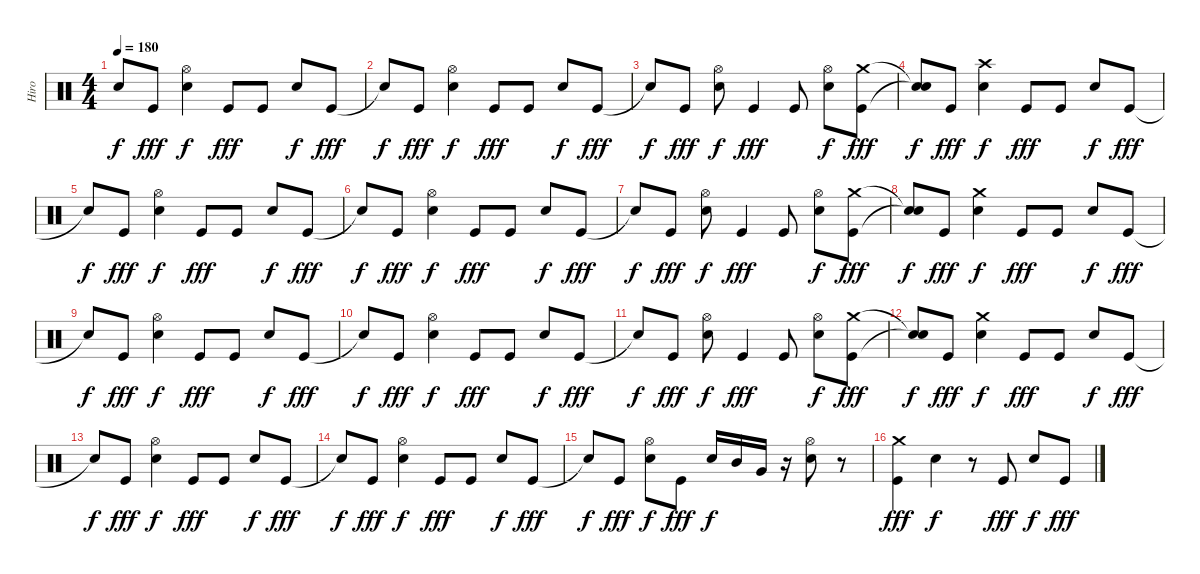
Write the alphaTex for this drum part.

\track ("Hiro" "Hiro") {instrument percussion}
\staff {score}
\articulation defaults
\ts (4 4)
\tempo 180
\clef neutral
\ks c "Snare (hit)"{t}.8{dy f} "Kick (hit)".8{dy fff}
("Electric Snare (hit)" "Hi-Hat (open)").4{dy f} "Kick (hit)".8{dy fff} "Kick (hit)".8 "Electric Snare (hit)".8{dy f} "Kick (hit)".8{dy fff} |
"Snare (hit)"{t}.8{dy f} "Kick (hit)".8{dy fff} ("Electric Snare (hit)" "Hi-Hat (open)").4{dy f} "Kick (hit)".8{dy fff} "Kick (hit)".8 "Electric Snare (hit)".8{dy f} "Kick (hit)".8{dy fff} |
"Snare (hit)"{t}.8{dy f} "Kick (hit)".8{dy fff} ("Electric Snare (hit)" "Hi-Hat (open)").8{dy f} "Kick (hit)".4{dy fff} "Kick (hit)".8 ("Electric Snare (hit)" "Hi-Hat (open)").8{dy f} ("Crash medium (hit)" "Kick (hit)").8{dy fff} |
("Snare (hit)"{t} "Snare (hit)"{t}).8{dy f} "Kick (hit)".8{dy fff} ("Electric Snare (hit)" "Crash high (hit)").4{dy f} "Kick (hit)".8{dy fff} "Kick (hit)".8 "Electric Snare (hit)".8{dy f} "Kick (hit)".8{dy fff} |
"Snare (hit)"{t}.8{dy f} "Kick (hit)".8{dy fff} ("Electric Snare (hit)" "Hi-Hat (open)").4{dy f} "Kick (hit)".8{dy fff} "Kick (hit)".8 "Electric Snare (hit)".8{dy f} "Kick (hit)".8{dy fff} |
"Snare (hit)"{t}.8{dy f} "Kick (hit)".8{dy fff} ("Electric Snare (hit)" "Hi-Hat (open)").4{dy f} "Kick (hit)".8{dy fff} "Kick (hit)".8 "Electric Snare (hit)".8{dy f} "Kick (hit)".8{dy fff} |
"Snare (hit)"{t}.8{dy f} "Kick (hit)".8{dy fff} ("Electric Snare (hit)" "Hi-Hat (open)").8{dy f} "Kick (hit)".4{dy fff} "Kick (hit)".8 ("Electric Snare (hit)" "Hi-Hat (open)").8{dy f} ("Crash medium (hit)" "Kick (hit)").8{dy fff} |
("Snare (hit)"{t} "Snare (hit)"{t}).8{dy f} "Kick (hit)".8{dy fff} ("Electric Snare (hit)" "Crash medium (hit)").4{dy f} "Kick (hit)".8{dy fff} "Kick (hit)".8 "Electric Snare (hit)".8{dy f} "Kick (hit)".8{dy fff} |
"Snare (hit)"{t}.8{dy f} "Kick (hit)".8{dy fff} ("Electric Snare (hit)" "Hi-Hat (open)").4{dy f} "Kick (hit)".8{dy fff} "Kick (hit)".8 "Electric Snare (hit)".8{dy f} "Kick (hit)".8{dy fff} |
"Snare (hit)"{t}.8{dy f} "Kick (hit)".8{dy fff} ("Electric Snare (hit)" "Hi-Hat (open)").4{dy f} "Kick (hit)".8{dy fff} "Kick (hit)".8 "Electric Snare (hit)".8{dy f} "Kick (hit)".8{dy fff} |
"Snare (hit)"{t}.8{dy f} "Kick (hit)".8{dy fff} ("Electric Snare (hit)" "Hi-Hat (open)").8{dy f} "Kick (hit)".4{dy fff} "Kick (hit)".8 ("Electric Snare (hit)" "Hi-Hat (open)").8{dy f} ("Crash medium (hit)" "Kick (hit)").8{dy fff} |
("Snare (hit)"{t} "Snare (hit)"{t}).8{dy f} "Kick (hit)".8{dy fff} ("Electric Snare (hit)" "Crash medium (hit)").4{dy f} "Kick (hit)".8{dy fff} "Kick (hit)".8 "Electric Snare (hit)".8{dy f} "Kick (hit)".8{dy fff} |
"Snare (hit)"{t}.8{dy f} "Kick (hit)".8{dy fff} ("Electric Snare (hit)" "Hi-Hat (open)").4{dy f} "Kick (hit)".8{dy fff} "Kick (hit)".8 "Electric Snare (hit)".8{dy f} "Kick (hit)".8{dy fff} |
"Snare (hit)"{t}.8{dy f} "Kick (hit)".8{dy fff} ("Electric Snare (hit)" "Hi-Hat (open)").4{dy f} "Kick (hit)".8{dy fff} "Kick (hit)".8 "Electric Snare (hit)".8{dy f} "Kick (hit)".8{dy fff} |
"Snare (hit)"{t}.8{dy f} "Kick (hit)".8{dy fff} ("Electric Snare (hit)" "Hi-Hat (open)").8{dy f} "Kick (hit)".8{dy fff} "Electric Snare (hit)".16{dy f} "Mid Tom (hit)".16 "Very Low Tom (hit)".16 r.16 ("Electric Snare (hit)" "Hi-Hat (open)").8 r.8 |
("Crash medium (hit)" "Kick (hit)").4{dy fff} "Electric Snare (hit)".4{dy f} r.8 "Kick (hit)".8{dy fff} "Electric Snare (hit)".8{dy f} "Kick (hit)".8{dy fff}
